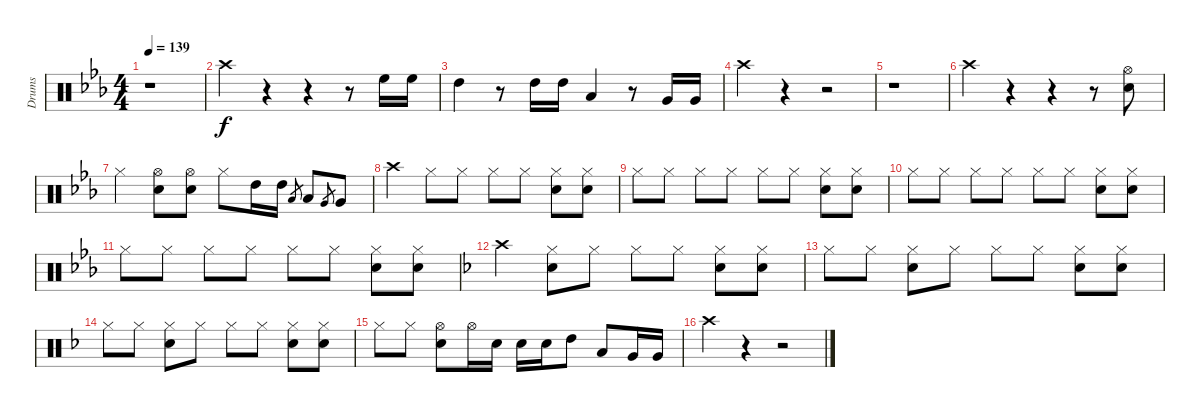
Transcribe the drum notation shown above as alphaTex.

\track ("Drums" "Drums") {instrument percussion}
\staff {score}
\articulation defaults
\ts (4 4)
\tempo 139
\clef neutral
\ks eb
r.1{dy f} |
"Crash high (hit)".4 r.4 r.4 r.8 "High Floor Tom (hit)".16 "High Floor Tom (hit)".16 |
"High Tom (hit)".4 r.8 "High Tom (hit)".16 "High Tom (hit)".16 "Low Tom (hit)".4 r.8 "Very Low Tom (hit)".16 "Very Low Tom (hit)".16 |
"Crash high (hit)".4 r.4 r.2 |
r.1 |
"Crash high (hit)".4 r.4 r.4 r.8 ("Hi-Hat (open)" "Snare (hit) 2").8 |
"Hi-Hat (closed)".4 ("Hi-Hat (open)" "Snare (hit) 2").8 ("Hi-Hat (open)" "Snare (hit) 2").8 "Hi-Hat (closed)".8 "High Tom (hit)".16 "High Tom (hit)".16 "Low Tom (hit)".8{gr} "Low Tom (hit)".8 "Very Low Tom (hit)".8{gr} "Very Low Tom (hit)".8 |
"Crash high (hit)".4 "Hi-Hat (closed)".8 "Hi-Hat (closed)".8 "Hi-Hat (closed)".8 "Hi-Hat (closed)".8 ("Hi-Hat (closed)" "Snare (hit) 2").8 ("Hi-Hat (closed)" "Snare (hit) 2").8 |
"Hi-Hat (closed)".8 "Hi-Hat (closed)".8 "Hi-Hat (closed)".8 "Hi-Hat (closed)".8 "Hi-Hat (closed)".8 "Hi-Hat (closed)".8 ("Hi-Hat (closed)" "Snare (hit) 2").8 ("Hi-Hat (closed)" "Snare (hit) 2").8 |
"Hi-Hat (closed)".8 "Hi-Hat (closed)".8 "Hi-Hat (closed)".8 "Hi-Hat (closed)".8 "Hi-Hat (closed)".8 "Hi-Hat (closed)".8 ("Hi-Hat (closed)" "Snare (hit) 2").8 ("Hi-Hat (closed)" "Snare (hit) 2").8 |
"Hi-Hat (closed)".8 "Hi-Hat (closed)".8 "Hi-Hat (closed)".8 "Hi-Hat (closed)".8 "Hi-Hat (closed)".8 "Hi-Hat (closed)".8 ("Hi-Hat (closed)" "Snare (hit) 2").8 ("Hi-Hat (closed)" "Snare (hit) 2").8 |
\ks f "Crash high (hit)".4
("Hi-Hat (closed)" "Snare (hit) 2").8 "Hi-Hat (closed)".8 "Hi-Hat (closed)".8 "Hi-Hat (closed)".8 ("Hi-Hat (closed)" "Snare (hit) 2").8 ("Hi-Hat (closed)" "Snare (hit) 2").8 |
"Hi-Hat (closed)".8 "Hi-Hat (closed)".8 ("Hi-Hat (closed)" "Snare (hit) 2").8 "Hi-Hat (closed)".8 "Hi-Hat (closed)".8 "Hi-Hat (closed)".8 ("Hi-Hat (closed)" "Snare (hit) 2").8 ("Hi-Hat (closed)" "Snare (hit) 2").8 |
"Hi-Hat (closed)".8 "Hi-Hat (closed)".8 ("Hi-Hat (closed)" "Snare (hit) 2").8 "Hi-Hat (closed)".8 "Hi-Hat (closed)".8 "Hi-Hat (closed)".8 ("Hi-Hat (closed)" "Snare (hit) 2").8 ("Hi-Hat (closed)" "Snare (hit) 2").8 |
"Hi-Hat (closed)".8 "Hi-Hat (closed)".8 ("Hi-Hat (open)" "Snare (hit) 2").8 "Hi-Hat (open)".16 "Snare (hit) 2".16 "Snare (hit) 2".16 "Snare (hit) 2".16 "High Tom (hit)".8 "Low Tom (hit)".8 "Very Low Tom (hit)".16 "Very Low Tom (hit)".16 |
"Crash high (hit)".4 r.4 r.2
